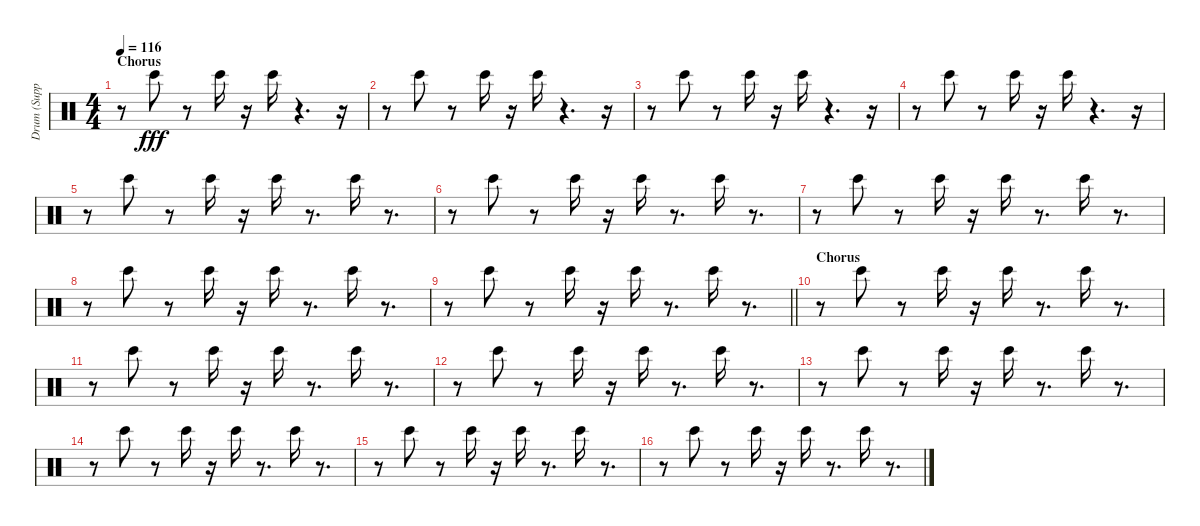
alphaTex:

\track ("Drum (Support)" "Drum (Supp") {instrument percussion}
\staff {score}
\articulation defaults
\ts (4 4)
\section ("" "Chorus")
\tempo 116
\clef neutral
\ks c
r.8{dy fff} "Bongo High (hit)".8 r.8 "Bongo High (hit)".16 r.16 "Bongo High (hit)".16 r.4{d} r.16 |
r.8 "Bongo High (hit)".8 r.8 "Bongo High (hit)".16 r.16 "Bongo High (hit)".16 r.4{d} r.16 |
r.8 "Bongo High (hit)".8 r.8 "Bongo High (hit)".16 r.16 "Bongo High (hit)".16 r.4{d} r.16 |
r.8 "Bongo High (hit)".8 r.8 "Bongo High (hit)".16 r.16 "Bongo High (hit)".16 r.4{d} r.16 |
r.8 "Bongo High (hit)".8 r.8 "Bongo High (hit)".16 r.16 "Bongo High (hit)".16 r.8{d} "Bongo High (hit)".16 r.8{d} |
r.8 "Bongo High (hit)".8 r.8 "Bongo High (hit)".16 r.16 "Bongo High (hit)".16 r.8{d} "Bongo High (hit)".16 r.8{d} |
r.8 "Bongo High (hit)".8 r.8 "Bongo High (hit)".16 r.16 "Bongo High (hit)".16 r.8{d} "Bongo High (hit)".16 r.8{d} |
r.8 "Bongo High (hit)".8 r.8 "Bongo High (hit)".16 r.16 "Bongo High (hit)".16 r.8{d} "Bongo High (hit)".16 r.8{d} |
\barLineRight lightlight
r.8 "Bongo High (hit)".8 r.8 "Bongo High (hit)".16 r.16 "Bongo High (hit)".16 r.8{d} "Bongo High (hit)".16 r.8{d} |
\section ("" "Chorus")
r.8 "Bongo High (hit)".8 r.8 "Bongo High (hit)".16 r.16 "Bongo High (hit)".16 r.8{d} "Bongo High (hit)".16 r.8{d} |
r.8 "Bongo High (hit)".8 r.8 "Bongo High (hit)".16 r.16 "Bongo High (hit)".16 r.8{d} "Bongo High (hit)".16 r.8{d} |
r.8 "Bongo High (hit)".8 r.8 "Bongo High (hit)".16 r.16 "Bongo High (hit)".16 r.8{d} "Bongo High (hit)".16 r.8{d} |
r.8 "Bongo High (hit)".8 r.8 "Bongo High (hit)".16 r.16 "Bongo High (hit)".16 r.8{d} "Bongo High (hit)".16 r.8{d} |
r.8 "Bongo High (hit)".8 r.8 "Bongo High (hit)".16 r.16 "Bongo High (hit)".16 r.8{d} "Bongo High (hit)".16 r.8{d} |
r.8 "Bongo High (hit)".8 r.8 "Bongo High (hit)".16 r.16 "Bongo High (hit)".16 r.8{d} "Bongo High (hit)".16 r.8{d} |
r.8 "Bongo High (hit)".8 r.8 "Bongo High (hit)".16 r.16 "Bongo High (hit)".16 r.8{d} "Bongo High (hit)".16 r.8{d}
